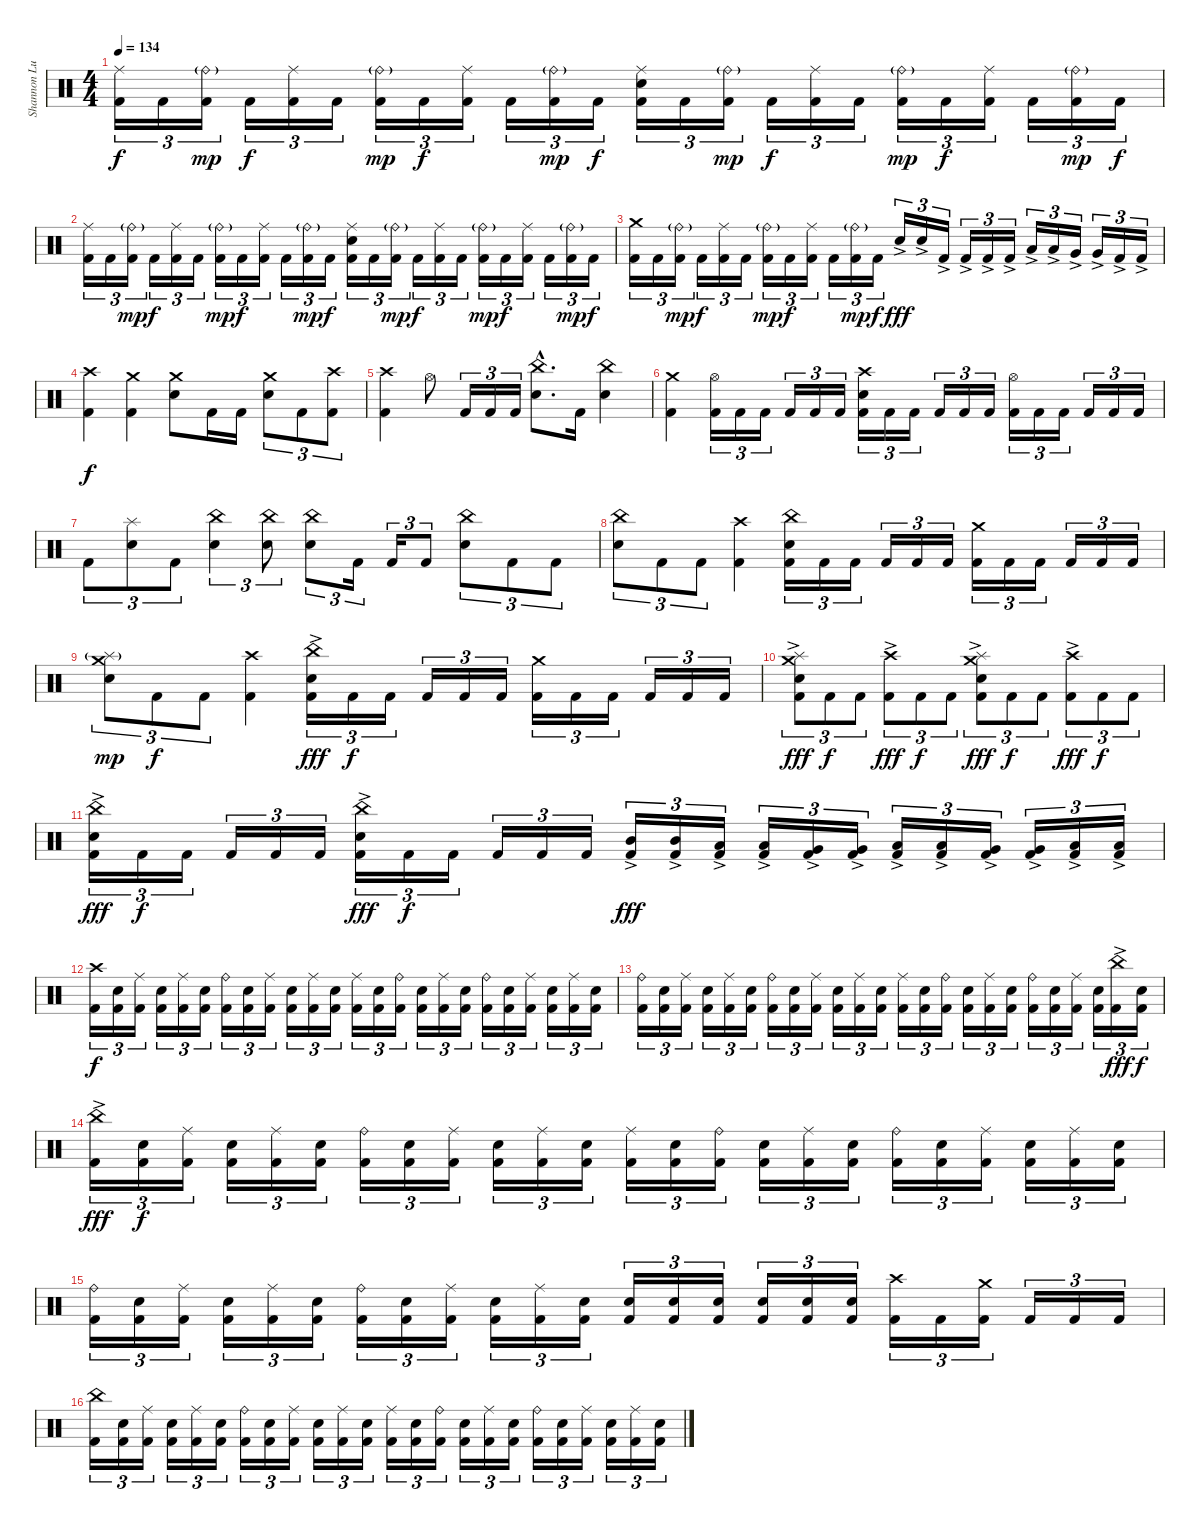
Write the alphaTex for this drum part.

\track ("Shannon Lucas [Drums (Since 2007)]" "Shannon Lu") {instrument percussion}
\staff {score}
\articulation defaults
\ts (4 4)
\tempo 134
\clef neutral
\ks c
("Ride (middle)" "Kick (hit) 2").16{tu (3 2) dy f} "Kick (hit) 2".16{tu (3 2)} ("Ride (bell)"{g} "Kick (hit) 2").16{tu (3 2) dy mp} "Kick (hit) 2".16{tu (3 2) dy f} ("Ride (middle)" "Kick (hit) 2").16{tu (3 2)} "Kick (hit) 2".16{tu (3 2)} ("Ride (bell)"{g} "Kick (hit) 2").16{tu (3 2) dy mp} "Kick (hit) 2".16{tu (3 2) dy f} ("Ride (middle)" "Kick (hit) 2").16{tu (3 2)} "Kick (hit) 2".16{tu (3 2)} ("Ride (bell)"{g} "Kick (hit) 2").16{tu (3 2) dy mp} "Kick (hit) 2".16{tu (3 2) dy f} ("Snare (hit) 2" "Ride (middle)" "Kick (hit) 2").16{tu (3 2)} "Kick (hit) 2".16{tu (3 2)} ("Ride (bell)"{g} "Kick (hit) 2").16{tu (3 2) dy mp} "Kick (hit) 2".16{tu (3 2) dy f} ("Ride (middle)" "Kick (hit) 2").16{tu (3 2)} "Kick (hit) 2".16{tu (3 2)} ("Ride (bell)"{g} "Kick (hit) 2").16{tu (3 2) dy mp} "Kick (hit) 2".16{tu (3 2) dy f} ("Ride (middle)" "Kick (hit) 2").16{tu (3 2)} "Kick (hit) 2".16{tu (3 2)} ("Ride (bell)"{g} "Kick (hit) 2").16{tu (3 2) dy mp} "Kick (hit) 2".16{tu (3 2) dy f} |
("Ride (middle)" "Kick (hit) 2").16{tu (3 2)} "Kick (hit) 2".16{tu (3 2)} ("Ride (bell)"{g} "Kick (hit) 2").16{tu (3 2) dy mp} "Kick (hit) 2".16{tu (3 2) dy f} ("Ride (middle)" "Kick (hit) 2").16{tu (3 2)} "Kick (hit) 2".16{tu (3 2)} ("Ride (bell)"{g} "Kick (hit) 2").16{tu (3 2) dy mp} "Kick (hit) 2".16{tu (3 2) dy f} ("Ride (middle)" "Kick (hit) 2").16{tu (3 2)} "Kick (hit) 2".16{tu (3 2)} ("Ride (bell)"{g} "Kick (hit) 2").16{tu (3 2) dy mp} "Kick (hit) 2".16{tu (3 2) dy f} ("Snare (hit) 2" "Ride (middle)" "Kick (hit) 2").16{tu (3 2)} "Kick (hit) 2".16{tu (3 2)} ("Ride (bell)"{g} "Kick (hit) 2").16{tu (3 2) dy mp} "Kick (hit) 2".16{tu (3 2) dy f} ("Ride (middle)" "Kick (hit) 2").16{tu (3 2)} "Kick (hit) 2".16{tu (3 2)} ("Ride (bell)"{g} "Kick (hit) 2").16{tu (3 2) dy mp} "Kick (hit) 2".16{tu (3 2) dy f} ("Ride (middle)" "Kick (hit) 2").16{tu (3 2)} "Kick (hit) 2".16{tu (3 2)} ("Ride (bell)"{g} "Kick (hit) 2").16{tu (3 2) dy mp} "Kick (hit) 2".16{tu (3 2) dy f} |
("Crash medium (hit)" "Kick (hit) 2").16{tu (3 2)} "Kick (hit) 2".16{tu (3 2)} ("Ride (bell)"{g} "Kick (hit) 2").16{tu (3 2) dy mp} "Kick (hit) 2".16{tu (3 2) dy f} ("Ride (middle)" "Kick (hit) 2").16{tu (3 2)} "Kick (hit) 2".16{tu (3 2)} ("Ride (bell)"{g} "Kick (hit) 2").16{tu (3 2) dy mp} "Kick (hit) 2".16{tu (3 2) dy f} ("Ride (middle)" "Kick (hit) 2").16{tu (3 2)} "Kick (hit) 2".16{tu (3 2)} ("Ride (bell)"{g} "Kick (hit) 2").16{tu (3 2) dy mp} "Kick (hit) 2".16{tu (3 2) dy f} "Snare (hit) 2"{ac}.16{tu (3 2) dy fff} "Snare (hit) 2"{ac}.16{tu (3 2)} "Kick (hit) 2"{ac}.16{tu (3 2)} "Kick (hit) 2"{ac}.16{tu (3 2)} "Kick (hit) 2"{ac}.16{tu (3 2)} "Kick (hit) 2"{ac}.16{tu (3 2)} "Low Tom (hit)"{ac}.16{tu (3 2)} "Low Tom (hit)"{ac}.16{tu (3 2)} "Very Low Tom (hit)"{ac}.16{tu (3 2)} "Very Low Tom (hit)"{ac}.16{tu (3 2)} "Kick (hit) 2"{ac}.16{tu (3 2)} "Kick (hit) 2"{ac}.16{tu (3 2)} |
("Crash high (hit)" "Kick (hit) 2").4{dy f} ("Crash medium (hit)" "Kick (hit) 2").4 ("Crash medium (hit)" "Snare (hit) 2").8 "Kick (hit) 2".16 "Kick (hit) 2".16 ("Crash medium (hit)" "Snare (hit) 2").8{tu (3 2)} "Kick (hit) 2".8{tu (3 2)} ("Crash high (hit)" "Kick (hit) 2").8{tu (3 2)} |
("Crash high (hit)" "Kick (hit) 2").4 "Hi-Hat (open)".8 "Kick (hit) 2".16{tu (3 2)} "Kick (hit) 2".16{tu (3 2)} "Kick (hit) 2".16{tu (3 2)} ("China (hit)"{hac} "Snare (hit) 2"{hac}).8{d} "Kick (hit) 2".16 ("China (hit)" "Snare (hit) 2").4 |
("Crash medium (hit)" "Kick (hit) 2").4 ("Hi-Hat (open)" "Kick (hit) 2").16{tu (3 2)} "Kick (hit) 2".16{tu (3 2)} "Kick (hit) 2".16{tu (3 2)} "Kick (hit) 2".16{tu (3 2)} "Kick (hit) 2".16{tu (3 2)} "Kick (hit) 2".16{tu (3 2)} ("Crash high (hit)" "Snare (hit) 2" "Kick (hit) 2").16{tu (3 2)} "Kick (hit) 2".16{tu (3 2)} "Kick (hit) 2".16{tu (3 2)} "Kick (hit) 2".16{tu (3 2)} "Kick (hit) 2".16{tu (3 2)} "Kick (hit) 2".16{tu (3 2)} ("Hi-Hat (open)" "Kick (hit) 2").16{tu (3 2)} "Kick (hit) 2".16{tu (3 2)} "Kick (hit) 2".16{tu (3 2)} "Kick (hit) 2".16{tu (3 2)} "Kick (hit) 2".16{tu (3 2)} "Kick (hit) 2".16{tu (3 2)} |
"Kick (hit) 2".8{tu (3 2)} ("Splash (hit)" "Snare (hit) 2").8{tu (3 2)} "Kick (hit) 2".8{tu (3 2)} ("China (hit)" "Snare (hit) 2").4{tu (3 2)} ("China (hit)" "Snare (hit) 2").8{tu (3 2)} ("China (hit)" "Snare (hit) 2").8{tu (3 2)} "Kick (hit) 2".16{tu (3 2)} "Kick (hit) 2".16{tu (3 2)} "Kick (hit) 2".8{tu (3 2)} ("China (hit)" "Snare (hit) 2").8{tu (3 2)} "Kick (hit) 2".8{tu (3 2)} "Kick (hit) 2".8{tu (3 2)} |
("China (hit)" "Snare (hit) 2").8{tu (3 2)} "Kick (hit) 2".8{tu (3 2)} "Kick (hit) 2".8{tu (3 2)} ("Crash high (hit)" "Kick (hit) 2").4 ("China (hit)" "Snare (hit) 2" "Kick (hit) 2").16{tu (3 2)} "Kick (hit) 2".16{tu (3 2)} "Kick (hit) 2".16{tu (3 2)} "Kick (hit) 2".16{tu (3 2)} "Kick (hit) 2".16{tu (3 2)} "Kick (hit) 2".16{tu (3 2)} ("Crash medium (hit)" "Kick (hit) 2").16{tu (3 2)} "Kick (hit) 2".16{tu (3 2)} "Kick (hit) 2".16{tu (3 2)} "Kick (hit) 2".16{tu (3 2)} "Kick (hit) 2".16{tu (3 2)} "Kick (hit) 2".16{tu (3 2)} |
("Splash (hit)"{g} "Crash medium (hit)" "Snare (hit) 2").8{tu (3 2) dy mp} "Kick (hit) 2".8{tu (3 2) dy f} "Kick (hit) 2".8{tu (3 2)} ("Crash high (hit)" "Kick (hit) 2").4 ("China (hit)"{ac} "Snare (hit) 2" "Kick (hit) 2").16{tu (3 2) dy fff} "Kick (hit) 2".16{tu (3 2) dy f} "Kick (hit) 2".16{tu (3 2)} "Kick (hit) 2".16{tu (3 2)} "Kick (hit) 2".16{tu (3 2)} "Kick (hit) 2".16{tu (3 2)} ("Crash medium (hit)" "Kick (hit) 2").16{tu (3 2)} "Kick (hit) 2".16{tu (3 2)} "Kick (hit) 2".16{tu (3 2)} "Kick (hit) 2".16{tu (3 2)} "Kick (hit) 2".16{tu (3 2)} "Kick (hit) 2".16{tu (3 2)} |
("Splash (hit)"{ac} "Crash medium (hit)" "Snare (hit) 2" "Kick (hit) 2").8{tu (3 2) dy fff} "Kick (hit) 2".8{tu (3 2) dy f} "Kick (hit) 2".8{tu (3 2)} ("Crash high (hit)"{ac} "Kick (hit) 2").8{tu (3 2) dy fff} "Kick (hit) 2".8{tu (3 2) dy f} "Kick (hit) 2".8{tu (3 2)} ("Splash (hit)"{ac} "Crash medium (hit)" "Snare (hit) 2" "Kick (hit) 2").8{tu (3 2) dy fff} "Kick (hit) 2".8{tu (3 2) dy f} "Kick (hit) 2".8{tu (3 2)} ("Crash high (hit)"{ac} "Kick (hit) 2").8{tu (3 2) dy fff} "Kick (hit) 2".8{tu (3 2) dy f} "Kick (hit) 2".8{tu (3 2)} |
("China (hit)"{ac} "Snare (hit) 2" "Kick (hit) 2").16{tu (3 2) dy fff} "Kick (hit) 2".16{tu (3 2) dy f} "Kick (hit) 2".16{tu (3 2)} "Kick (hit) 2".16{tu (3 2)} "Kick (hit) 2".16{tu (3 2)} "Kick (hit) 2".16{tu (3 2)} ("China (hit)"{ac} "Snare (hit) 2" "Kick (hit) 2").16{tu (3 2) dy fff} "Kick (hit) 2".16{tu (3 2) dy f} "Kick (hit) 2".16{tu (3 2)} "Kick (hit) 2".16{tu (3 2)} "Kick (hit) 2".16{tu (3 2)} "Kick (hit) 2".16{tu (3 2)} ("Mid Tom (hit)"{ac} "Kick (hit) 2").16{tu (3 2) dy fff} ("Mid Tom (hit)"{ac} "Kick (hit) 2").16{tu (3 2)} ("Low Tom (hit)"{ac} "Kick (hit) 2").16{tu (3 2)} ("Low Tom (hit)"{ac} "Kick (hit) 2").16{tu (3 2)} ("Very Low Tom (hit)"{ac} "Kick (hit) 2").16{tu (3 2)} ("Very Low Tom (hit)"{ac} "Kick (hit) 2").16{tu (3 2)} ("Low Tom (hit)"{ac} "Kick (hit) 2").16{tu (3 2)} ("Low Tom (hit)"{ac} "Kick (hit) 2").16{tu (3 2)} ("Very Low Tom (hit)"{ac} "Kick (hit) 2").16{tu (3 2)} ("Very Low Tom (hit)"{ac} "Kick (hit) 2").16{tu (3 2)} ("Low Floor Tom (hit)"{ac} "Kick (hit) 2").16{tu (3 2)} ("Low Floor Tom (hit)"{ac} "Kick (hit) 2").16{tu (3 2)} |
("Crash high (hit)" "Kick (hit) 2").16{tu (3 2) dy f} ("Snare (hit) 2" "Kick (hit) 2").16{tu (3 2)} ("Ride (middle)" "Kick (hit) 2").16{tu (3 2)} ("Snare (hit) 2" "Kick (hit) 2").16{tu (3 2)} ("Ride (middle)" "Kick (hit) 2").16{tu (3 2)} ("Snare (hit) 2" "Kick (hit) 2").16{tu (3 2)} ("Ride (bell)" "Kick (hit) 2").16{tu (3 2)} ("Snare (hit) 2" "Kick (hit) 2").16{tu (3 2)} ("Ride (middle)" "Kick (hit) 2").16{tu (3 2)} ("Snare (hit) 2" "Kick (hit) 2").16{tu (3 2)} ("Ride (middle)" "Kick (hit) 2").16{tu (3 2)} ("Snare (hit) 2" "Kick (hit) 2").16{tu (3 2)} ("Ride (middle)" "Kick (hit) 2").16{tu (3 2)} ("Snare (hit) 2" "Kick (hit) 2").16{tu (3 2)} ("Ride (bell)" "Kick (hit) 2").16{tu (3 2)} ("Snare (hit) 2" "Kick (hit) 2").16{tu (3 2)} ("Ride (middle)" "Kick (hit) 2").16{tu (3 2)} ("Snare (hit) 2" "Kick (hit) 2").16{tu (3 2)} ("Ride (bell)" "Kick (hit) 2").16{tu (3 2)} ("Snare (hit) 2" "Kick (hit) 2").16{tu (3 2)} ("Ride (middle)" "Kick (hit) 2").16{tu (3 2)} ("Snare (hit) 2" "Kick (hit) 2").16{tu (3 2)} ("Ride (middle)" "Kick (hit) 2").16{tu (3 2)} ("Snare (hit) 2" "Kick (hit) 2").16{tu (3 2)} |
("Ride (bell)" "Kick (hit) 2").16{tu (3 2)} ("Snare (hit) 2" "Kick (hit) 2").16{tu (3 2)} ("Ride (middle)" "Kick (hit) 2").16{tu (3 2)} ("Snare (hit) 2" "Kick (hit) 2").16{tu (3 2)} ("Ride (middle)" "Kick (hit) 2").16{tu (3 2)} ("Snare (hit) 2" "Kick (hit) 2").16{tu (3 2)} ("Ride (bell)" "Kick (hit) 2").16{tu (3 2)} ("Snare (hit) 2" "Kick (hit) 2").16{tu (3 2)} ("Ride (middle)" "Kick (hit) 2").16{tu (3 2)} ("Snare (hit) 2" "Kick (hit) 2").16{tu (3 2)} ("Ride (middle)" "Kick (hit) 2").16{tu (3 2)} ("Snare (hit) 2" "Kick (hit) 2").16{tu (3 2)} ("Ride (middle)" "Kick (hit) 2").16{tu (3 2)} ("Snare (hit) 2" "Kick (hit) 2").16{tu (3 2)} ("Ride (bell)" "Kick (hit) 2").16{tu (3 2)} ("Snare (hit) 2" "Kick (hit) 2").16{tu (3 2)} ("Ride (middle)" "Kick (hit) 2").16{tu (3 2)} ("Snare (hit) 2" "Kick (hit) 2").16{tu (3 2)} ("Ride (bell)" "Kick (hit) 2").16{tu (3 2)} ("Snare (hit) 2" "Kick (hit) 2").16{tu (3 2)} ("Ride (middle)" "Kick (hit) 2").16{tu (3 2)} ("Snare (hit) 2" "Kick (hit) 2").16{tu (3 2)} ("China (hit)"{ac} "Kick (hit) 2").16{tu (3 2) dy fff} ("Snare (hit) 2" "Kick (hit) 2").16{tu (3 2) dy f} |
("China (hit)"{ac} "Kick (hit) 2").16{tu (3 2) dy fff} ("Snare (hit) 2" "Kick (hit) 2").16{tu (3 2) dy f} ("Ride (middle)" "Kick (hit) 2").16{tu (3 2)} ("Snare (hit) 2" "Kick (hit) 2").16{tu (3 2)} ("Ride (middle)" "Kick (hit) 2").16{tu (3 2)} ("Snare (hit) 2" "Kick (hit) 2").16{tu (3 2)} ("Ride (bell)" "Kick (hit) 2").16{tu (3 2)} ("Snare (hit) 2" "Kick (hit) 2").16{tu (3 2)} ("Ride (middle)" "Kick (hit) 2").16{tu (3 2)} ("Snare (hit) 2" "Kick (hit) 2").16{tu (3 2)} ("Ride (middle)" "Kick (hit) 2").16{tu (3 2)} ("Snare (hit) 2" "Kick (hit) 2").16{tu (3 2)} ("Ride (middle)" "Kick (hit) 2").16{tu (3 2)} ("Snare (hit) 2" "Kick (hit) 2").16{tu (3 2)} ("Ride (bell)" "Kick (hit) 2").16{tu (3 2)} ("Snare (hit) 2" "Kick (hit) 2").16{tu (3 2)} ("Ride (middle)" "Kick (hit) 2").16{tu (3 2)} ("Snare (hit) 2" "Kick (hit) 2").16{tu (3 2)} ("Ride (bell)" "Kick (hit) 2").16{tu (3 2)} ("Snare (hit) 2" "Kick (hit) 2").16{tu (3 2)} ("Ride (middle)" "Kick (hit) 2").16{tu (3 2)} ("Snare (hit) 2" "Kick (hit) 2").16{tu (3 2)} ("Ride (middle)" "Kick (hit) 2").16{tu (3 2)} ("Snare (hit) 2" "Kick (hit) 2").16{tu (3 2)} |
("Ride (bell)" "Kick (hit) 2").16{tu (3 2)} ("Snare (hit) 2" "Kick (hit) 2").16{tu (3 2)} ("Ride (middle)" "Kick (hit) 2").16{tu (3 2)} ("Snare (hit) 2" "Kick (hit) 2").16{tu (3 2)} ("Ride (middle)" "Kick (hit) 2").16{tu (3 2)} ("Snare (hit) 2" "Kick (hit) 2").16{tu (3 2)} ("Ride (bell)" "Kick (hit) 2").16{tu (3 2)} ("Snare (hit) 2" "Kick (hit) 2").16{tu (3 2)} ("Ride (middle)" "Kick (hit) 2").16{tu (3 2)} ("Snare (hit) 2" "Kick (hit) 2").16{tu (3 2)} ("Ride (middle)" "Kick (hit) 2").16{tu (3 2)} ("Snare (hit) 2" "Kick (hit) 2").16{tu (3 2)} ("Snare (hit) 2" "Kick (hit) 2").16{tu (3 2)} ("Snare (hit) 2" "Kick (hit) 2").16{tu (3 2)} ("Snare (hit) 2" "Kick (hit) 2").16{tu (3 2)} ("Snare (hit) 2" "Kick (hit) 2").16{tu (3 2)} ("Snare (hit) 2" "Kick (hit) 2").16{tu (3 2)} ("Snare (hit) 2" "Kick (hit) 2").16{tu (3 2)} ("Crash high (hit)" "Kick (hit) 2").16{tu (3 2)} "Kick (hit) 2".16{tu (3 2)} ("Crash medium (hit)" "Kick (hit) 2").16{tu (3 2)} "Kick (hit) 2".16{tu (3 2)} "Kick (hit) 2".16{tu (3 2)} "Kick (hit) 2".16{tu (3 2)} |
("China (hit)" "Kick (hit) 2").16{tu (3 2)} ("Snare (hit) 2" "Kick (hit) 2").16{tu (3 2)} ("Ride (middle)" "Kick (hit) 2").16{tu (3 2)} ("Snare (hit) 2" "Kick (hit) 2").16{tu (3 2)} ("Ride (middle)" "Kick (hit) 2").16{tu (3 2)} ("Snare (hit) 2" "Kick (hit) 2").16{tu (3 2)} ("Ride (bell)" "Kick (hit) 2").16{tu (3 2)} ("Snare (hit) 2" "Kick (hit) 2").16{tu (3 2)} ("Ride (middle)" "Kick (hit) 2").16{tu (3 2)} ("Snare (hit) 2" "Kick (hit) 2").16{tu (3 2)} ("Ride (middle)" "Kick (hit) 2").16{tu (3 2)} ("Snare (hit) 2" "Kick (hit) 2").16{tu (3 2)} ("Ride (middle)" "Kick (hit) 2").16{tu (3 2)} ("Snare (hit) 2" "Kick (hit) 2").16{tu (3 2)} ("Ride (bell)" "Kick (hit) 2").16{tu (3 2)} ("Snare (hit) 2" "Kick (hit) 2").16{tu (3 2)} ("Ride (middle)" "Kick (hit) 2").16{tu (3 2)} ("Snare (hit) 2" "Kick (hit) 2").16{tu (3 2)} ("Ride (bell)" "Kick (hit) 2").16{tu (3 2)} ("Snare (hit) 2" "Kick (hit) 2").16{tu (3 2)} ("Ride (middle)" "Kick (hit) 2").16{tu (3 2)} ("Snare (hit) 2" "Kick (hit) 2").16{tu (3 2)} ("Ride (middle)" "Kick (hit) 2").16{tu (3 2)} ("Snare (hit) 2" "Kick (hit) 2").16{tu (3 2)}
